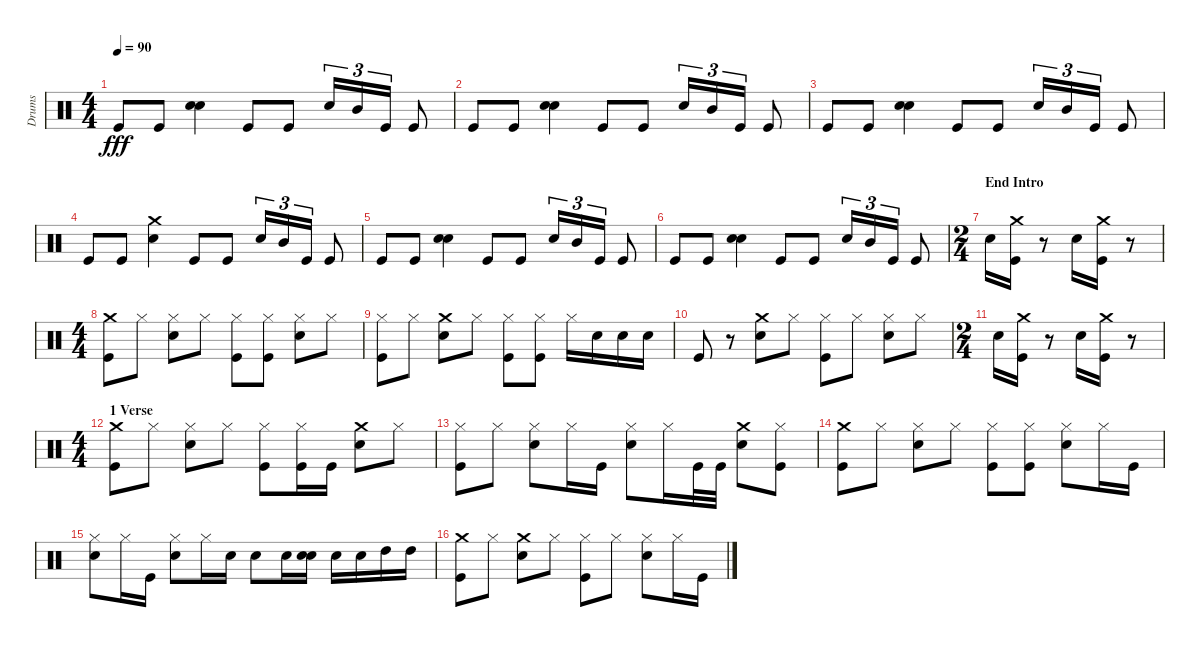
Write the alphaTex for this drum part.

\track ("Drums" "Drums") {instrument percussion}
\staff {score}
\articulation defaults
\ts (4 4)
\tempo 90
\clef neutral
\ks c "Kick (hit)".8{dy fff} "Kick (hit)".8
("Snare (hit) 2" "Snare (hit) 2").4 "Kick (hit)".8 "Kick (hit)".8 "Snare (hit) 2".16{tu (3 2)} "Mid Tom (hit)".16{tu (3 2)} "Kick (hit)".16{tu (3 2)} "Kick (hit)".8 |
"Kick (hit)".8 "Kick (hit)".8 ("Snare (hit) 2" "Snare (hit) 2").4 "Kick (hit)".8 "Kick (hit)".8 "Snare (hit) 2".16{tu (3 2)} "Mid Tom (hit)".16{tu (3 2)} "Kick (hit)".16{tu (3 2)} "Kick (hit)".8 |
"Kick (hit)".8 "Kick (hit)".8 ("Snare (hit) 2" "Snare (hit) 2").4 "Kick (hit)".8 "Kick (hit)".8 "Snare (hit) 2".16{tu (3 2)} "Mid Tom (hit)".16{tu (3 2)} "Kick (hit)".16{tu (3 2)} "Kick (hit)".8 |
"Kick (hit)".8 "Kick (hit)".8 ("Crash medium (hit)" "Snare (hit) 2").4 "Kick (hit)".8 "Kick (hit)".8 "Snare (hit) 2".16{tu (3 2)} "Mid Tom (hit)".16{tu (3 2)} "Kick (hit)".16{tu (3 2)} "Kick (hit)".8 |
"Kick (hit)".8 "Kick (hit)".8 ("Snare (hit) 2" "Snare (hit) 2").4 "Kick (hit)".8 "Kick (hit)".8 "Snare (hit) 2".16{tu (3 2)} "Mid Tom (hit)".16{tu (3 2)} "Kick (hit)".16{tu (3 2)} "Kick (hit)".8 |
"Kick (hit)".8 "Kick (hit)".8 ("Snare (hit) 2" "Snare (hit) 2").4 "Kick (hit)".8 "Kick (hit)".8 "Snare (hit) 2".16{tu (3 2)} "Mid Tom (hit)".16{tu (3 2)} "Kick (hit)".16{tu (3 2)} "Kick (hit)".8 |
\ts (2 4)
\section ("" "End Intro")
"Snare (hit) 2".16 ("Crash medium (hit)" "Kick (hit)").16 r.8 "Snare (hit) 2".16 ("Crash medium (hit)" "Kick (hit)").16 r.8 |
\ts (4 4)
("Crash medium (hit)" "Kick (hit)").8 "Hi-Hat (closed)".8 ("Snare (hit) 2" "Hi-Hat (closed)").8 "Hi-Hat (closed)".8 ("Kick (hit)" "Hi-Hat (closed)").8 ("Kick (hit)" "Hi-Hat (closed)").8 ("Snare (hit) 2" "Hi-Hat (closed)").8 "Hi-Hat (closed)".8 |
("Hi-Hat (closed)" "Kick (hit)").8 "Hi-Hat (closed)".8 ("Crash medium (hit)" "Snare (hit) 2").8 "Hi-Hat (closed)".8 ("Kick (hit)" "Hi-Hat (closed)").8 ("Hi-Hat (closed)" "Kick (hit)").8 "Hi-Hat (closed)".16 "Snare (hit) 2".16 "Snare (hit) 2".16 "Snare (hit) 2".16 |
"Kick (hit)".8 r.8 ("Crash medium (hit)" "Snare (hit) 2").8 "Hi-Hat (closed)".8 ("Hi-Hat (closed)" "Kick (hit)").8 "Hi-Hat (closed)".8 ("Snare (hit) 2" "Hi-Hat (closed)").8 "Hi-Hat (closed)".8 |
\ts (2 4)
"Snare (hit) 2".16 ("Crash medium (hit)" "Kick (hit)").16 r.8 "Snare (hit) 2".16 ("Crash medium (hit)" "Kick (hit)").16 r.8 |
\ts (4 4)
\section ("" "1 Verse")
("Crash medium (hit)" "Kick (hit)").8 "Hi-Hat (closed)".8 ("Snare (hit) 2" "Hi-Hat (closed)").8 "Hi-Hat (closed)".8 ("Kick (hit)" "Hi-Hat (closed)").8 ("Kick (hit)" "Hi-Hat (closed)").16 "Kick (hit)".16 ("Crash medium (hit)" "Snare (hit) 2").8 "Hi-Hat (closed)".8 |
("Hi-Hat (closed)" "Kick (hit)").8 "Hi-Hat (closed)".8 ("Snare (hit) 2" "Hi-Hat (closed)").8 "Hi-Hat (closed)".16 "Kick (hit)".16 ("Snare (hit) 2" "Hi-Hat (closed)").8 "Hi-Hat (closed)".16 "Kick (hit)".32 "Kick (hit)".32 ("Crash medium (hit)" "Snare (hit) 2").8 ("Kick (hit)" "Hi-Hat (closed)").8 |
("Crash medium (hit)" "Kick (hit)").8 "Hi-Hat (closed)".8 ("Snare (hit) 2" "Hi-Hat (closed)").8 "Hi-Hat (closed)".8 ("Hi-Hat (closed)" "Kick (hit)").8 ("Hi-Hat (closed)" "Kick (hit)").8 ("Hi-Hat (closed)" "Snare (hit) 2").8 "Hi-Hat (closed)".16 "Kick (hit)".16 |
("Hi-Hat (closed)" "Snare (hit) 2").8 "Hi-Hat (closed)".16 "Kick (hit)".16 ("Snare (hit) 2" "Hi-Hat (closed)").8 "Hi-Hat (closed)".16 "Snare (hit) 2".16 "Snare (hit) 2".8 "Snare (hit) 2".16 ("Snare (hit) 2" "Snare (hit) 2").16 "Snare (hit) 2".16 "Snare (hit) 2".16 "High Tom (hit)".16 "High Tom (hit)".16 |
("Crash medium (hit)" "Kick (hit)").8 "Hi-Hat (closed)".8 ("Snare (hit) 2" "Crash medium (hit)").8 "Hi-Hat (closed)".8 ("Kick (hit)" "Hi-Hat (closed)").8 "Hi-Hat (closed)".8 ("Snare (hit) 2" "Hi-Hat (closed)").8 "Hi-Hat (closed)".16 "Kick (hit)".16
